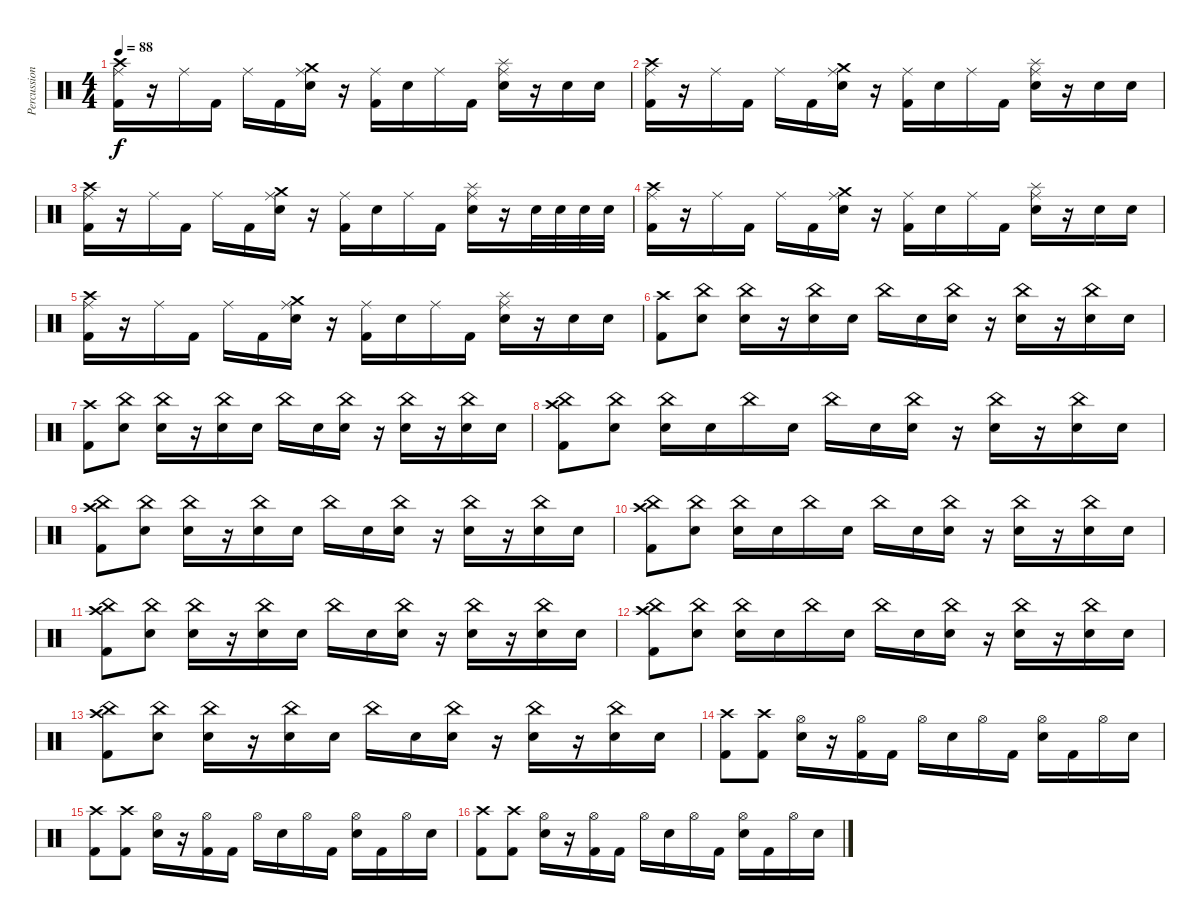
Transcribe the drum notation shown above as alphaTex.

\track ("Percussion" "Percussion") {instrument percussion}
\staff {score}
\articulation defaults
\ts (4 4)
\tempo 88
\clef neutral
\ks c
("Crash high (hit)" "Ride (middle)" "Kick (hit) 2").16{dy f} r.16 "Ride (middle)".16 "Kick (hit) 2".16 "Ride (middle)".16 "Kick (hit) 2".16 ("Crash medium (hit)" "Ride (middle)" "Electric Snare (hit)").16 r.16 ("Ride (middle)" "Kick (hit) 2").16 "Electric Snare (hit)".16 "Ride (middle)".16 "Kick (hit) 2".16 ("Splash (hit)" "Ride (middle)" "Electric Snare (hit)").16 r.16 "Electric Snare (hit)".16 "Electric Snare (hit)".16 |
("Crash high (hit)" "Ride (middle)" "Kick (hit) 2").16 r.16 "Ride (middle)".16 "Kick (hit) 2".16 "Ride (middle)".16 "Kick (hit) 2".16 ("Crash medium (hit)" "Ride (middle)" "Electric Snare (hit)").16 r.16 ("Ride (middle)" "Kick (hit) 2").16 "Electric Snare (hit)".16 "Ride (middle)".16 "Kick (hit) 2".16 ("Splash (hit)" "Ride (middle)" "Electric Snare (hit)").16 r.16 "Electric Snare (hit)".16 "Electric Snare (hit)".16 |
("Crash high (hit)" "Ride (middle)" "Kick (hit) 2").16 r.16 "Ride (middle)".16 "Kick (hit) 2".16 "Ride (middle)".16 "Kick (hit) 2".16 ("Crash medium (hit)" "Ride (middle)" "Electric Snare (hit)").16 r.16 ("Ride (middle)" "Kick (hit) 2").16 "Electric Snare (hit)".16 "Ride (middle)".16 "Kick (hit) 2".16 ("Splash (hit)" "Ride (middle)" "Electric Snare (hit)").16 r.16 "Electric Snare (hit)".32 "Electric Snare (hit)".32 "Electric Snare (hit)".32 "Electric Snare (hit)".32 |
("Crash high (hit)" "Ride (middle)" "Kick (hit) 2").16 r.16 "Ride (middle)".16 "Kick (hit) 2".16 "Ride (middle)".16 "Kick (hit) 2".16 ("Crash medium (hit)" "Ride (middle)" "Electric Snare (hit)").16 r.16 ("Ride (middle)" "Kick (hit) 2").16 "Electric Snare (hit)".16 "Ride (middle)".16 "Kick (hit) 2".16 ("Splash (hit)" "Ride (middle)" "Electric Snare (hit)").16 r.16 "Electric Snare (hit)".16 "Electric Snare (hit)".16 |
("Crash high (hit)" "Ride (middle)" "Kick (hit) 2").16 r.16 "Ride (middle)".16 "Kick (hit) 2".16 "Ride (middle)".16 "Kick (hit) 2".16 ("Crash medium (hit)" "Ride (middle)" "Electric Snare (hit)").16 r.16 ("Ride (middle)" "Kick (hit) 2").16 "Electric Snare (hit)".16 "Ride (middle)".16 "Kick (hit) 2".16 ("Splash (hit)" "Ride (middle)" "Electric Snare (hit)").16 r.16 "Electric Snare (hit)".16 "Electric Snare (hit)".16 |
("Crash high (hit)" "Kick (hit) 2").8 ("China (hit)" "Electric Snare (hit)").8 ("China (hit)" "Electric Snare (hit)").16 r.16 ("China (hit)" "Electric Snare (hit)").16 "Electric Snare (hit)".16 "China (hit)".16 "Electric Snare (hit)".16 ("China (hit)" "Electric Snare (hit)").16 r.16 ("China (hit)" "Electric Snare (hit)").16 r.16 ("China (hit)" "Electric Snare (hit)").16 "Electric Snare (hit)".16 |
("Crash high (hit)" "Kick (hit) 2").8 ("China (hit)" "Electric Snare (hit)").8 ("China (hit)" "Electric Snare (hit)").16 r.16 ("China (hit)" "Electric Snare (hit)").16 "Electric Snare (hit)".16 "China (hit)".16 "Electric Snare (hit)".16 ("China (hit)" "Electric Snare (hit)").16 r.16 ("China (hit)" "Electric Snare (hit)").16 r.16 ("China (hit)" "Electric Snare (hit)").16 "Electric Snare (hit)".16 |
("Crash high (hit)" "China (hit)" "Kick (hit) 2").8 ("China (hit)" "Electric Snare (hit)").8 ("China (hit)" "Electric Snare (hit)").16 "Electric Snare (hit)".16 "China (hit)".16 "Electric Snare (hit)".16 "China (hit)".16 "Electric Snare (hit)".16 ("China (hit)" "Electric Snare (hit)").16 r.16 ("China (hit)" "Electric Snare (hit)").16 r.16 ("China (hit)" "Electric Snare (hit)").16 "Electric Snare (hit)".16 |
("Crash high (hit)" "China (hit)" "Kick (hit) 2").8 ("China (hit)" "Electric Snare (hit)").8 ("China (hit)" "Electric Snare (hit)").16 r.16 ("China (hit)" "Electric Snare (hit)").16 "Electric Snare (hit)".16 "China (hit)".16 "Electric Snare (hit)".16 ("China (hit)" "Electric Snare (hit)").16 r.16 ("China (hit)" "Electric Snare (hit)").16 r.16 ("China (hit)" "Electric Snare (hit)").16 "Electric Snare (hit)".16 |
("Crash high (hit)" "China (hit)" "Kick (hit) 2").8 ("China (hit)" "Electric Snare (hit)").8 ("China (hit)" "Electric Snare (hit)").16 "Electric Snare (hit)".16 "China (hit)".16 "Electric Snare (hit)".16 "China (hit)".16 "Electric Snare (hit)".16 ("China (hit)" "Electric Snare (hit)").16 r.16 ("China (hit)" "Electric Snare (hit)").16 r.16 ("China (hit)" "Electric Snare (hit)").16 "Electric Snare (hit)".16 |
("Crash high (hit)" "China (hit)" "Kick (hit) 2").8 ("China (hit)" "Electric Snare (hit)").8 ("China (hit)" "Electric Snare (hit)").16 r.16 ("China (hit)" "Electric Snare (hit)").16 "Electric Snare (hit)".16 "China (hit)".16 "Electric Snare (hit)".16 ("China (hit)" "Electric Snare (hit)").16 r.16 ("China (hit)" "Electric Snare (hit)").16 r.16 ("China (hit)" "Electric Snare (hit)").16 "Electric Snare (hit)".16 |
("Crash high (hit)" "China (hit)" "Kick (hit) 2").8 ("China (hit)" "Electric Snare (hit)").8 ("China (hit)" "Electric Snare (hit)").16 "Electric Snare (hit)".16 "China (hit)".16 "Electric Snare (hit)".16 "China (hit)".16 "Electric Snare (hit)".16 ("China (hit)" "Electric Snare (hit)").16 r.16 ("China (hit)" "Electric Snare (hit)").16 r.16 ("China (hit)" "Electric Snare (hit)").16 "Electric Snare (hit)".16 |
("Crash high (hit)" "China (hit)" "Kick (hit) 2").8 ("China (hit)" "Electric Snare (hit)").8 ("China (hit)" "Electric Snare (hit)").16 r.16 ("China (hit)" "Electric Snare (hit)").16 "Electric Snare (hit)".16 "China (hit)".16 "Electric Snare (hit)".16 ("China (hit)" "Electric Snare (hit)").16 r.16 ("China (hit)" "Electric Snare (hit)").16 r.16 ("China (hit)" "Electric Snare (hit)").16 "Electric Snare (hit)".16 |
("Crash high (hit)" "Kick (hit) 2").8 ("Crash high (hit)" "Kick (hit) 2").8 ("Hi-Hat (open)" "Electric Snare (hit)").16 r.16 ("Hi-Hat (open)" "Kick (hit) 2").16 "Kick (hit) 2".16 "Hi-Hat (open)".16 "Electric Snare (hit)".16 "Hi-Hat (open)".16 "Kick (hit) 2".16 ("Hi-Hat (open)" "Electric Snare (hit)").16 "Kick (hit) 2".16 "Hi-Hat (open)".16 "Electric Snare (hit)".16 |
("Crash high (hit)" "Kick (hit) 2").8 ("Crash high (hit)" "Kick (hit) 2").8 ("Hi-Hat (open)" "Electric Snare (hit)").16 r.16 ("Hi-Hat (open)" "Kick (hit) 2").16 "Kick (hit) 2".16 "Hi-Hat (open)".16 "Electric Snare (hit)".16 "Hi-Hat (open)".16 "Kick (hit) 2".16 ("Hi-Hat (open)" "Electric Snare (hit)").16 "Kick (hit) 2".16 "Hi-Hat (open)".16 "Electric Snare (hit)".16 |
("Crash high (hit)" "Kick (hit) 2").8 ("Crash high (hit)" "Kick (hit) 2").8 ("Hi-Hat (open)" "Electric Snare (hit)").16 r.16 ("Hi-Hat (open)" "Kick (hit) 2").16 "Kick (hit) 2".16 "Hi-Hat (open)".16 "Electric Snare (hit)".16 "Hi-Hat (open)".16 "Kick (hit) 2".16 ("Hi-Hat (open)" "Electric Snare (hit)").16 "Kick (hit) 2".16 "Hi-Hat (open)".16 "Electric Snare (hit)".16
